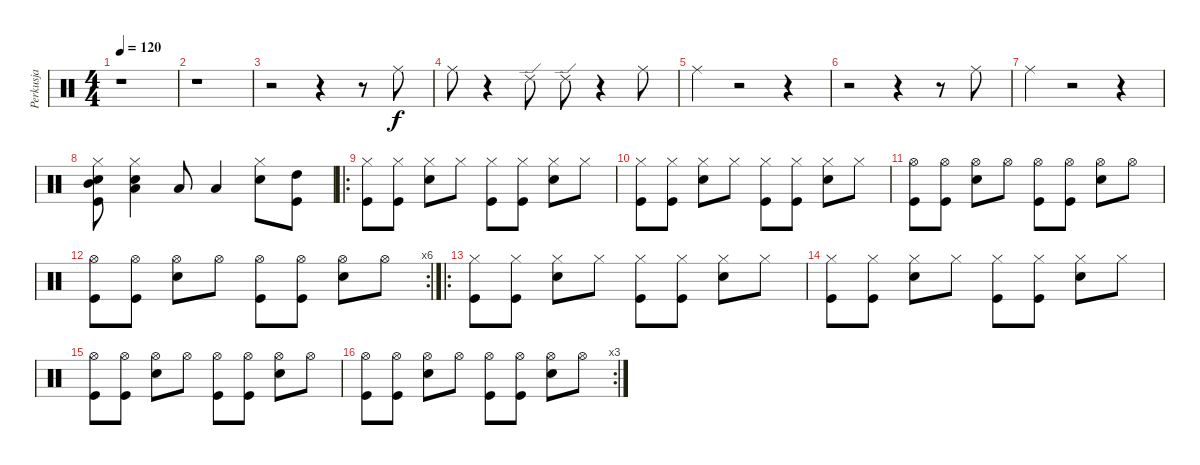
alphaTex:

\track ("Perkusja" "Perkusja") {instrument percussion}
\staff {score}
\articulation defaults
\ts (4 4)
\tempo 120
\clef neutral
\ks c
r.1{dy f} |
r.1 |
r.2 r.4 r.8 "Ride (middle)".8 |
"Ride (middle)".8 r.4 "Ride (edge) 2".8 "Ride (edge) 2".8 r.4 "Ride (middle)".8 |
"Ride (middle)".4 r.2 r.4 |
r.2 r.4 r.8 "Ride (middle)".8 |
"Ride (middle)".4 r.2 r.4 |
("Hi-Hat (closed)" "Mid Tom (hit)" "Electric Snare (hit)" "Kick (hit)").8 ("Hi-Hat (closed)" "Low Tom (hit)" "Electric Snare (hit)").4 "Low Floor Tom (hit)".8 "Low Floor Tom (hit)".4 ("Hi-Hat (closed)" "Electric Snare (hit)").8 ("High Tom (hit)" "Kick (hit)").8 |
\ro
("Hi-Hat (closed)" "Kick (hit)").8 ("Hi-Hat (closed)" "Kick (hit)").8 ("Hi-Hat (closed)" "Electric Snare (hit)").8 "Hi-Hat (closed)".8 ("Hi-Hat (closed)" "Kick (hit)").8 ("Hi-Hat (closed)" "Kick (hit)").8 ("Hi-Hat (closed)" "Electric Snare (hit)").8 "Hi-Hat (closed)".8 |
("Hi-Hat (closed)" "Kick (hit)").8 ("Hi-Hat (closed)" "Kick (hit)").8 ("Hi-Hat (closed)" "Electric Snare (hit)").8 "Hi-Hat (closed)".8 ("Hi-Hat (closed)" "Kick (hit)").8 ("Hi-Hat (closed)" "Kick (hit)").8 ("Hi-Hat (closed)" "Electric Snare (hit)").8 "Hi-Hat (closed)".8 |
("Hi-Hat (open)" "Kick (hit)").8 ("Hi-Hat (open)" "Kick (hit)").8 ("Hi-Hat (open)" "Electric Snare (hit)").8 "Hi-Hat (open)".8 ("Hi-Hat (open)" "Kick (hit)").8 ("Hi-Hat (open)" "Kick (hit)").8 ("Hi-Hat (open)" "Electric Snare (hit)").8 "Hi-Hat (open)".8 |
\rc 6
("Hi-Hat (open)" "Kick (hit)").8 ("Hi-Hat (open)" "Kick (hit)").8 ("Hi-Hat (open)" "Electric Snare (hit)").8 "Hi-Hat (open)".8 ("Hi-Hat (open)" "Kick (hit)").8 ("Hi-Hat (open)" "Kick (hit)").8 ("Hi-Hat (open)" "Electric Snare (hit)").8 "Hi-Hat (open)".8 |
\ro
("Hi-Hat (closed)" "Kick (hit)").8 ("Hi-Hat (closed)" "Kick (hit)").8 ("Hi-Hat (closed)" "Electric Snare (hit)").8 "Hi-Hat (closed)".8 ("Hi-Hat (closed)" "Kick (hit)").8 ("Hi-Hat (closed)" "Kick (hit)").8 ("Hi-Hat (closed)" "Electric Snare (hit)").8 "Hi-Hat (closed)".8 |
("Hi-Hat (closed)" "Kick (hit)").8 ("Hi-Hat (closed)" "Kick (hit)").8 ("Hi-Hat (closed)" "Electric Snare (hit)").8 "Hi-Hat (closed)".8 ("Hi-Hat (closed)" "Kick (hit)").8 ("Hi-Hat (closed)" "Kick (hit)").8 ("Hi-Hat (closed)" "Electric Snare (hit)").8 "Hi-Hat (closed)".8 |
("Hi-Hat (open)" "Kick (hit)").8 ("Hi-Hat (open)" "Kick (hit)").8 ("Hi-Hat (open)" "Electric Snare (hit)").8 "Hi-Hat (open)".8 ("Hi-Hat (open)" "Kick (hit)").8 ("Hi-Hat (open)" "Kick (hit)").8 ("Hi-Hat (open)" "Electric Snare (hit)").8 "Hi-Hat (open)".8 |
\rc 3
("Hi-Hat (open)" "Kick (hit)").8 ("Hi-Hat (open)" "Kick (hit)").8 ("Hi-Hat (open)" "Electric Snare (hit)").8 "Hi-Hat (open)".8 ("Hi-Hat (open)" "Kick (hit)").8 ("Hi-Hat (open)" "Kick (hit)").8 ("Hi-Hat (open)" "Electric Snare (hit)").8 "Hi-Hat (open)".8
